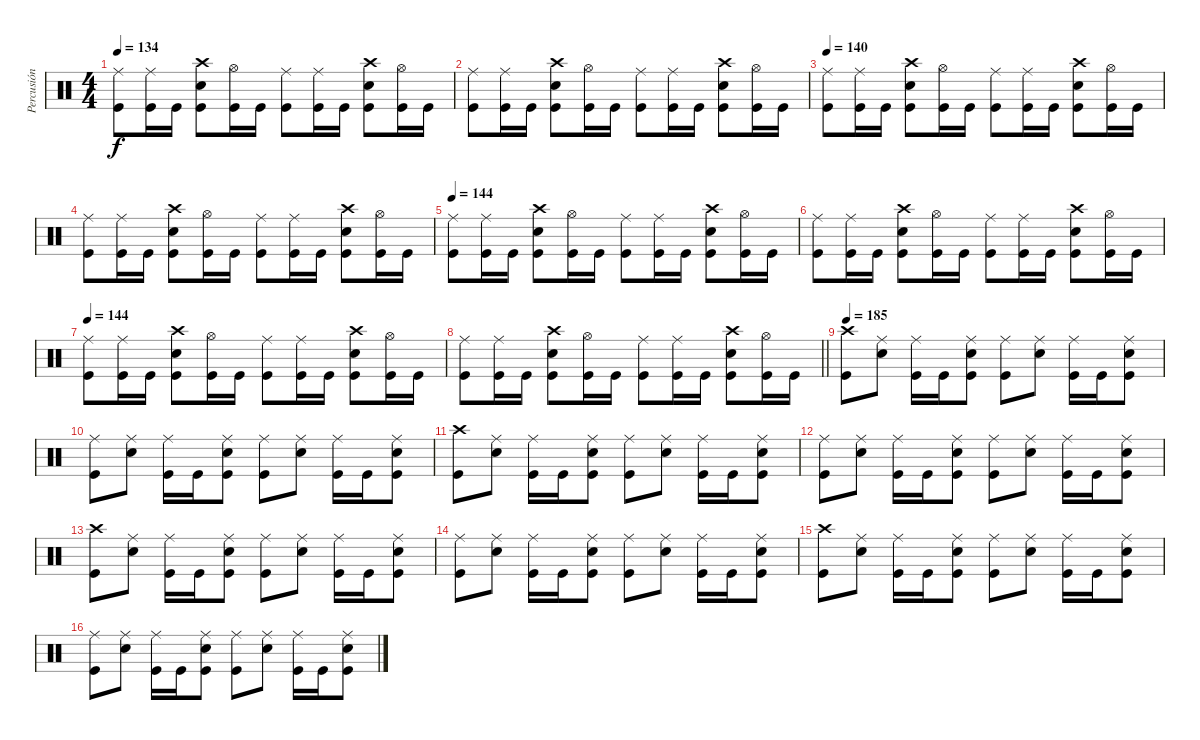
\track ("Percusión" "Percusión") {instrument percussion}
\staff {score}
\articulation defaults
\ts (4 4)
\tempo 134
\clef neutral
\ks c
("Ride (middle)" "Kick (hit)").8{dy f} ("Ride (middle)" "Kick (hit)").16 "Kick (hit)".16 ("Crash high (hit)" "Kick (hit)" "Snare (hit) 2").8 ("Hi-Hat (open)" "Kick (hit)").16 "Kick (hit)".16 ("Ride (middle)" "Kick (hit)").8 ("Ride (middle)" "Kick (hit)").16 "Kick (hit)".16 ("Crash high (hit)" "Kick (hit)" "Snare (hit) 2").8 ("Hi-Hat (open)" "Kick (hit)").16 "Kick (hit)".16 |
("Ride (middle)" "Kick (hit)").8 ("Ride (middle)" "Kick (hit)").16 "Kick (hit)".16 ("Crash high (hit)" "Kick (hit)" "Snare (hit) 2").8 ("Hi-Hat (open)" "Kick (hit)").16 "Kick (hit)".16 ("Ride (middle)" "Kick (hit)").8 ("Ride (middle)" "Kick (hit)").16 "Kick (hit)".16 ("Crash high (hit)" "Kick (hit)" "Snare (hit) 2").8 ("Hi-Hat (open)" "Kick (hit)").16 "Kick (hit)".16 |
\tempo 140
("Ride (middle)" "Kick (hit)").8 ("Ride (middle)" "Kick (hit)").16 "Kick (hit)".16 ("Crash high (hit)" "Kick (hit)" "Snare (hit) 2").8 ("Hi-Hat (open)" "Kick (hit)").16 "Kick (hit)".16 ("Ride (middle)" "Kick (hit)").8 ("Ride (middle)" "Kick (hit)").16 "Kick (hit)".16 ("Crash high (hit)" "Kick (hit)" "Snare (hit) 2").8 ("Hi-Hat (open)" "Kick (hit)").16 "Kick (hit)".16 |
("Ride (middle)" "Kick (hit)").8 ("Ride (middle)" "Kick (hit)").16 "Kick (hit)".16 ("Crash high (hit)" "Kick (hit)" "Snare (hit) 2").8 ("Hi-Hat (open)" "Kick (hit)").16 "Kick (hit)".16 ("Ride (middle)" "Kick (hit)").8 ("Ride (middle)" "Kick (hit)").16 "Kick (hit)".16 ("Crash high (hit)" "Kick (hit)" "Snare (hit) 2").8 ("Hi-Hat (open)" "Kick (hit)").16 "Kick (hit)".16 |
\tempo 144
("Ride (middle)" "Kick (hit)").8 ("Ride (middle)" "Kick (hit)").16 "Kick (hit)".16 ("Crash high (hit)" "Kick (hit)" "Snare (hit) 2").8 ("Hi-Hat (open)" "Kick (hit)").16 "Kick (hit)".16 ("Ride (middle)" "Kick (hit)").8 ("Ride (middle)" "Kick (hit)").16 "Kick (hit)".16 ("Crash high (hit)" "Kick (hit)" "Snare (hit) 2").8 ("Hi-Hat (open)" "Kick (hit)").16 "Kick (hit)".16 |
("Ride (middle)" "Kick (hit)").8 ("Ride (middle)" "Kick (hit)").16 "Kick (hit)".16 ("Crash high (hit)" "Kick (hit)" "Snare (hit) 2").8 ("Hi-Hat (open)" "Kick (hit)").16 "Kick (hit)".16 ("Ride (middle)" "Kick (hit)").8 ("Ride (middle)" "Kick (hit)").16 "Kick (hit)".16 ("Crash high (hit)" "Kick (hit)" "Snare (hit) 2").8 ("Hi-Hat (open)" "Kick (hit)").16 "Kick (hit)".16 |
\tempo 144
("Ride (middle)" "Kick (hit)").8 ("Ride (middle)" "Kick (hit)").16 "Kick (hit)".16 ("Crash high (hit)" "Kick (hit)" "Snare (hit) 2").8 ("Hi-Hat (open)" "Kick (hit)").16 "Kick (hit)".16 ("Ride (middle)" "Kick (hit)").8 ("Ride (middle)" "Kick (hit)").16 "Kick (hit)".16 ("Crash high (hit)" "Kick (hit)" "Snare (hit) 2").8 ("Hi-Hat (open)" "Kick (hit)").16 "Kick (hit)".16 |
\barLineRight lightlight
("Ride (middle)" "Kick (hit)").8 ("Ride (middle)" "Kick (hit)").16 "Kick (hit)".16 ("Crash high (hit)" "Kick (hit)" "Snare (hit) 2").8 ("Hi-Hat (open)" "Kick (hit)").16 "Kick (hit)".16 ("Ride (middle)" "Kick (hit)").8 ("Ride (middle)" "Kick (hit)").16 "Kick (hit)".16 ("Crash high (hit)" "Kick (hit)" "Snare (hit) 2").8 ("Hi-Hat (open)" "Kick (hit)").16 "Kick (hit)".16 |
\tempo 185
("Kick (hit)" "Crash high (hit)").8 ("Snare (hit) 2" "Ride (middle)").8 ("Kick (hit)" "Ride (middle)").16 "Kick (hit)".16 ("Kick (hit)" "Ride (middle)" "Snare (hit) 2").8 ("Kick (hit)" "Ride (middle)").8 ("Snare (hit) 2" "Ride (middle)").8 ("Kick (hit)" "Ride (middle)").16 "Kick (hit)".16 ("Kick (hit)" "Ride (middle)" "Snare (hit) 2").8 |
("Kick (hit)" "Ride (middle)").8 ("Snare (hit) 2" "Ride (middle)").8 ("Kick (hit)" "Ride (middle)").16 "Kick (hit)".16 ("Kick (hit)" "Ride (middle)" "Snare (hit) 2").8 ("Kick (hit)" "Ride (middle)").8 ("Snare (hit) 2" "Ride (middle)").8 ("Kick (hit)" "Ride (middle)").16 "Kick (hit)".16 ("Kick (hit)" "Ride (middle)" "Snare (hit) 2").8 |
("Kick (hit)" "Crash high (hit)").8 ("Snare (hit) 2" "Ride (middle)").8 ("Kick (hit)" "Ride (middle)").16 "Kick (hit)".16 ("Kick (hit)" "Ride (middle)" "Snare (hit) 2").8 ("Kick (hit)" "Ride (middle)").8 ("Snare (hit) 2" "Ride (middle)").8 ("Kick (hit)" "Ride (middle)").16 "Kick (hit)".16 ("Kick (hit)" "Ride (middle)" "Snare (hit) 2").8 |
("Kick (hit)" "Ride (middle)").8 ("Snare (hit) 2" "Ride (middle)").8 ("Kick (hit)" "Ride (middle)").16 "Kick (hit)".16 ("Kick (hit)" "Ride (middle)" "Snare (hit) 2").8 ("Kick (hit)" "Ride (middle)").8 ("Snare (hit) 2" "Ride (middle)").8 ("Kick (hit)" "Ride (middle)").16 "Kick (hit)".16 ("Kick (hit)" "Ride (middle)" "Snare (hit) 2").8 |
("Kick (hit)" "Crash high (hit)").8 ("Snare (hit) 2" "Ride (middle)").8 ("Kick (hit)" "Ride (middle)").16 "Kick (hit)".16 ("Kick (hit)" "Ride (middle)" "Snare (hit) 2").8 ("Kick (hit)" "Ride (middle)").8 ("Snare (hit) 2" "Ride (middle)").8 ("Kick (hit)" "Ride (middle)").16 "Kick (hit)".16 ("Kick (hit)" "Ride (middle)" "Snare (hit) 2").8 |
("Kick (hit)" "Ride (middle)").8 ("Snare (hit) 2" "Ride (middle)").8 ("Kick (hit)" "Ride (middle)").16 "Kick (hit)".16 ("Kick (hit)" "Ride (middle)" "Snare (hit) 2").8 ("Kick (hit)" "Ride (middle)").8 ("Snare (hit) 2" "Ride (middle)").8 ("Kick (hit)" "Ride (middle)").16 "Kick (hit)".16 ("Kick (hit)" "Ride (middle)" "Snare (hit) 2").8 |
("Kick (hit)" "Crash high (hit)").8 ("Snare (hit) 2" "Ride (middle)").8 ("Kick (hit)" "Ride (middle)").16 "Kick (hit)".16 ("Kick (hit)" "Ride (middle)" "Snare (hit) 2").8 ("Kick (hit)" "Ride (middle)").8 ("Snare (hit) 2" "Ride (middle)").8 ("Kick (hit)" "Ride (middle)").16 "Kick (hit)".16 ("Kick (hit)" "Ride (middle)" "Snare (hit) 2").8 |
("Kick (hit)" "Ride (middle)").8 ("Snare (hit) 2" "Ride (middle)").8 ("Kick (hit)" "Ride (middle)").16 "Kick (hit)".16 ("Kick (hit)" "Ride (middle)" "Snare (hit) 2").8 ("Kick (hit)" "Ride (middle)").8 ("Snare (hit) 2" "Ride (middle)").8 ("Kick (hit)" "Ride (middle)").16 "Kick (hit)".16 ("Kick (hit)" "Ride (middle)" "Snare (hit) 2").8
